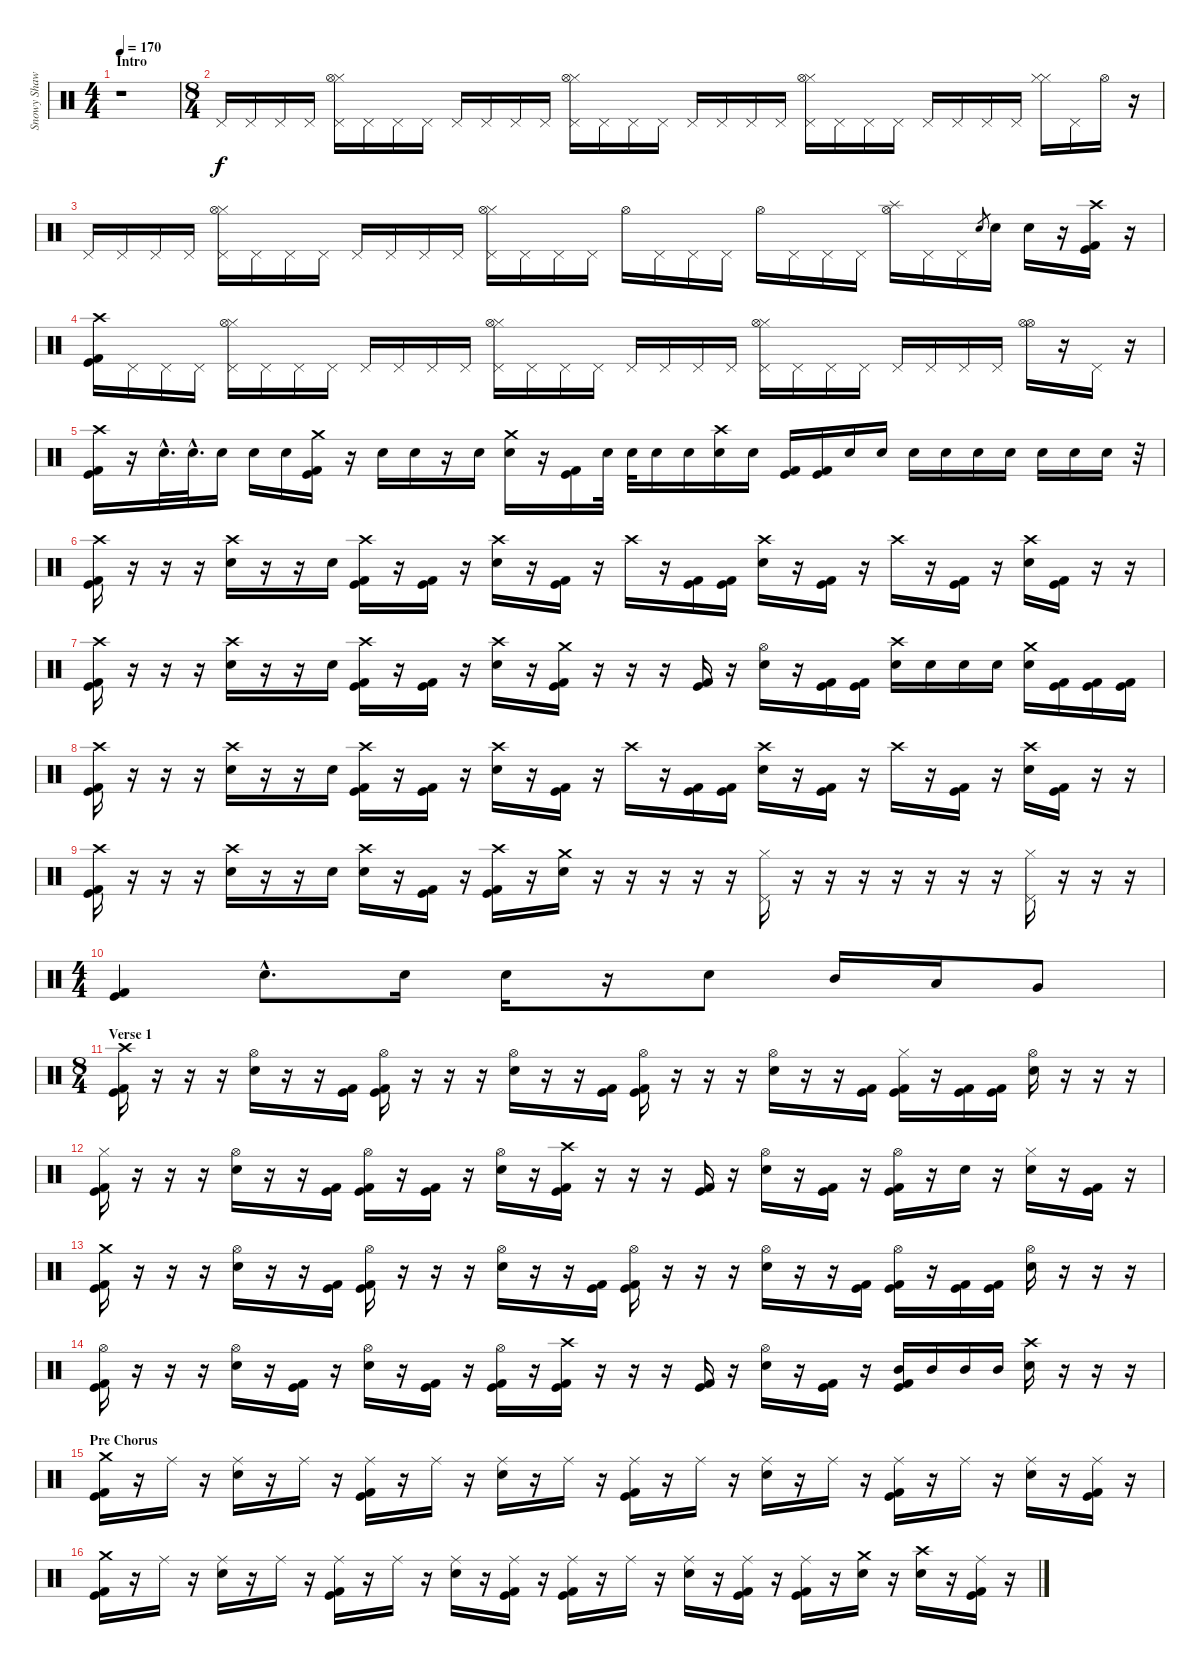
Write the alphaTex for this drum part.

\track ("Snowy Shaw" "Snowy Shaw") {instrument percussion}
\staff {score}
\articulation defaults
\ts (4 4)
\section ("" "Intro")
\tempo 170
\clef neutral
\ks c
r.1{dy f} |
\ts (8 4)
"Pedal Hi-Hat (hit)".16 "Pedal Hi-Hat (hit)".16 "Pedal Hi-Hat (hit)".16 "Pedal Hi-Hat (hit)".16 ("Hi-Hat (closed)" "Pedal Hi-Hat (hit)" "Hi-Hat (open)").16 "Pedal Hi-Hat (hit)".16 "Pedal Hi-Hat (hit)".16 "Pedal Hi-Hat (hit)".16 "Pedal Hi-Hat (hit)".16 "Pedal Hi-Hat (hit)".16 "Pedal Hi-Hat (hit)".16 "Pedal Hi-Hat (hit)".16 ("Hi-Hat (closed)" "Pedal Hi-Hat (hit)" "Hi-Hat (open)").16 "Pedal Hi-Hat (hit)".16 "Pedal Hi-Hat (hit)".16 "Pedal Hi-Hat (hit)".16 "Pedal Hi-Hat (hit)".16 "Pedal Hi-Hat (hit)".16 "Pedal Hi-Hat (hit)".16 "Pedal Hi-Hat (hit)".16 ("Hi-Hat (closed)" "Pedal Hi-Hat (hit)" "Hi-Hat (open)").16 "Pedal Hi-Hat (hit)".16 "Pedal Hi-Hat (hit)".16 "Pedal Hi-Hat (hit)".16 "Pedal Hi-Hat (hit)".16 "Pedal Hi-Hat (hit)".16 "Pedal Hi-Hat (hit)".16 "Pedal Hi-Hat (hit)".16 ("Hi-Hat (closed)" "Hi-Hat (closed)").16 "Pedal Hi-Hat (hit)".16 "Hi-Hat (open)".16 r.16 |
"Pedal Hi-Hat (hit)".16 "Pedal Hi-Hat (hit)".16 "Pedal Hi-Hat (hit)".16 "Pedal Hi-Hat (hit)".16 ("Hi-Hat (closed)" "Pedal Hi-Hat (hit)" "Hi-Hat (open)").16 "Pedal Hi-Hat (hit)".16 "Pedal Hi-Hat (hit)".16 "Pedal Hi-Hat (hit)".16 "Pedal Hi-Hat (hit)".16 "Pedal Hi-Hat (hit)".16 "Pedal Hi-Hat (hit)".16 "Pedal Hi-Hat (hit)".16 ("Hi-Hat (closed)" "Pedal Hi-Hat (hit)" "Hi-Hat (open)").16 "Pedal Hi-Hat (hit)".16 "Pedal Hi-Hat (hit)".16 "Pedal Hi-Hat (hit)".16 "Hi-Hat (open)".16 "Pedal Hi-Hat (hit)".16 "Pedal Hi-Hat (hit)".16 "Pedal Hi-Hat (hit)".16 "Hi-Hat (open)".16 "Pedal Hi-Hat (hit)".16 "Pedal Hi-Hat (hit)".16 "Pedal Hi-Hat (hit)".16 ("Splash (hit)" "Hi-Hat (open)").16 "Pedal Hi-Hat (hit)".16 "Pedal Hi-Hat (hit)".16 "Electric Snare (hit)".8{gr} "Electric Snare (hit)".16 "Electric Snare (hit)".16 r.16 ("Crash high (hit)" "Kick (hit) 2" "Kick (hit)").16 r.16 |
("Crash high (hit)" "Kick (hit)" "Kick (hit) 2").16 "Pedal Hi-Hat (hit)".16 "Pedal Hi-Hat (hit)".16 "Pedal Hi-Hat (hit)".16 ("Hi-Hat (closed)" "Pedal Hi-Hat (hit)" "Hi-Hat (open)").16 "Pedal Hi-Hat (hit)".16 "Pedal Hi-Hat (hit)".16 "Pedal Hi-Hat (hit)".16 "Pedal Hi-Hat (hit)".16 "Pedal Hi-Hat (hit)".16 "Pedal Hi-Hat (hit)".16 "Pedal Hi-Hat (hit)".16 ("Hi-Hat (closed)" "Pedal Hi-Hat (hit)" "Hi-Hat (open)").16 "Pedal Hi-Hat (hit)".16 "Pedal Hi-Hat (hit)".16 "Pedal Hi-Hat (hit)".16 "Pedal Hi-Hat (hit)".16 "Pedal Hi-Hat (hit)".16 "Pedal Hi-Hat (hit)".16 "Pedal Hi-Hat (hit)".16 ("Hi-Hat (closed)" "Pedal Hi-Hat (hit)" "Hi-Hat (open)").16 "Pedal Hi-Hat (hit)".16 "Pedal Hi-Hat (hit)".16 "Pedal Hi-Hat (hit)".16 "Pedal Hi-Hat (hit)".16 "Pedal Hi-Hat (hit)".16 "Pedal Hi-Hat (hit)".16 "Pedal Hi-Hat (hit)".16 ("Hi-Hat (open)" "Hi-Hat (open)").16 r.16 "Pedal Hi-Hat (hit)".16 r.16 |
("Crash high (hit)" "Kick (hit)" "Kick (hit) 2").16 r.16 "Electric Snare (hit)"{hac}.32{d} "Electric Snare (hit)"{hac}.32{d} "Electric Snare (hit)".16 "Electric Snare (hit)".16 "Electric Snare (hit)".16 ("Crash medium (hit)" "Kick (hit)" "Kick (hit) 2").16 r.16 "Electric Snare (hit)".16 "Electric Snare (hit)".16 r.16 "Electric Snare (hit)".16 ("Crash medium (hit)" "Electric Snare (hit)").16 r.16 ("Kick (hit)" "Kick (hit) 2").16 "Electric Snare (hit)".32 "Electric Snare (hit)".32 "Electric Snare (hit)".16 "Electric Snare (hit)".16 ("Crash high (hit)" "Electric Snare (hit)").16 "Electric Snare (hit)".16 ("Kick (hit)" "Kick (hit) 2").16 ("Kick (hit)" "Kick (hit) 2").16 "Electric Snare (hit)".16 "Electric Snare (hit)".16 "Electric Snare (hit)".16 "Electric Snare (hit)".16 "Electric Snare (hit)".16 "Electric Snare (hit)".16 "Electric Snare (hit)".16 "Electric Snare (hit)".16 "Electric Snare (hit)".16 r.32 |
("Crash high (hit)" "Kick (hit)" "Kick (hit) 2").16 r.16 r.16 r.16 ("Crash high (hit)" "Electric Snare (hit)").16 r.16 r.16 "Electric Snare (hit)".16 ("Crash high (hit)" "Kick (hit)" "Kick (hit) 2").16 r.16 ("Kick (hit)" "Kick (hit) 2").16 r.16 ("Crash high (hit)" "Electric Snare (hit)").16 r.16 ("Kick (hit)" "Kick (hit) 2").16 r.16 "Crash high (hit)".16 r.16 ("Kick (hit) 2" "Kick (hit)").16 ("Kick (hit)" "Kick (hit) 2").16 ("Crash high (hit)" "Electric Snare (hit)").16 r.16 ("Kick (hit)" "Kick (hit) 2").16 r.16 "Crash high (hit)".16 r.16 ("Kick (hit) 2" "Kick (hit)").16 r.16 ("Crash high (hit)" "Electric Snare (hit)").16 ("Kick (hit) 2" "Kick (hit)").16 r.16 r.16 |
("Crash high (hit)" "Kick (hit)" "Kick (hit) 2").16 r.16 r.16 r.16 ("Crash high (hit)" "Electric Snare (hit)").16 r.16 r.16 "Electric Snare (hit)".16 ("Crash high (hit)" "Kick (hit)" "Kick (hit) 2").16 r.16 ("Kick (hit)" "Kick (hit) 2").16 r.16 ("Crash high (hit)" "Electric Snare (hit)").16 r.16 ("Crash medium (hit)" "Kick (hit)" "Kick (hit) 2").16 r.16 r.16 r.16 ("Kick (hit) 2" "Kick (hit)").16 r.16 ("Hi-Hat (open)" "Electric Snare (hit)").16 r.16 ("Kick (hit)" "Kick (hit) 2").16 ("Kick (hit) 2" "Kick (hit)").16 ("Crash high (hit)" "Electric Snare (hit)").16 "Electric Snare (hit)".16 "Electric Snare (hit)".16 "Electric Snare (hit)".16 ("Crash medium (hit)" "Electric Snare (hit)").16 ("Kick (hit) 2" "Kick (hit)").16 ("Kick (hit) 2" "Kick (hit)").16 ("Kick (hit) 2" "Kick (hit)").16 |
("Crash high (hit)" "Kick (hit)" "Kick (hit) 2").16 r.16 r.16 r.16 ("Crash high (hit)" "Electric Snare (hit)").16 r.16 r.16 "Electric Snare (hit)".16 ("Crash high (hit)" "Kick (hit)" "Kick (hit) 2").16 r.16 ("Kick (hit)" "Kick (hit) 2").16 r.16 ("Crash high (hit)" "Electric Snare (hit)").16 r.16 ("Kick (hit)" "Kick (hit) 2").16 r.16 "Crash high (hit)".16 r.16 ("Kick (hit) 2" "Kick (hit)").16 ("Kick (hit)" "Kick (hit) 2").16 ("Crash high (hit)" "Electric Snare (hit)").16 r.16 ("Kick (hit)" "Kick (hit) 2").16 r.16 "Crash high (hit)".16 r.16 ("Kick (hit) 2" "Kick (hit)").16 r.16 ("Crash high (hit)" "Electric Snare (hit)").16 ("Kick (hit) 2" "Kick (hit)").16 r.16 r.16 |
("Crash high (hit)" "Kick (hit)" "Kick (hit) 2").16 r.16 r.16 r.16 ("Crash high (hit)" "Electric Snare (hit)").16 r.16 r.16 "Electric Snare (hit)".16 ("Crash high (hit)" "Electric Snare (hit)").16 r.16 ("Kick (hit)" "Kick (hit) 2").16 r.16 ("Crash high (hit)" "Kick (hit) 2" "Kick (hit)").16 r.16 ("Crash medium (hit)" "Electric Snare (hit)").16 r.16 r.16 r.16 r.16 r.16 ("Pedal Hi-Hat (hit)" "Hi-Hat (closed)").16 r.16 r.16 r.16 r.16 r.16 r.16 r.16 ("Pedal Hi-Hat (hit)" "Hi-Hat (closed)").16 r.16 r.16 r.16 |
\ts (4 4)
("Kick (hit)" "Kick (hit) 2").4 "Electric Snare (hit)"{hac}.8{d} "Electric Snare (hit)".16 "Electric Snare (hit)".16 r.16 "Electric Snare (hit)".8 "Mid Tom (hit)".16 "Low Tom (hit)".16 "Very Low Tom (hit)".8 |
\ts (8 4)
\section ("" "Verse 1")
("Crash high (hit)" "Kick (hit)" "Kick (hit) 2").16 r.16 r.16 r.16 ("Hi-Hat (open)" "Electric Snare (hit)").16 r.16 r.16 ("Kick (hit) 2" "Kick (hit)").16 ("Hi-Hat (open)" "Kick (hit)" "Kick (hit) 2").16 r.16 r.16 r.16 ("Hi-Hat (open)" "Electric Snare (hit)").16 r.16 r.16 ("Kick (hit)" "Kick (hit) 2").16 ("Hi-Hat (open)" "Kick (hit)" "Kick (hit) 2").16 r.16 r.16 r.16 ("Hi-Hat (open)" "Electric Snare (hit)").16 r.16 r.16 ("Kick (hit)" "Kick (hit) 2").16 ("Hi-Hat (closed)" "Kick (hit)" "Kick (hit) 2").16 r.16 ("Kick (hit)" "Kick (hit) 2").16 ("Kick (hit)" "Kick (hit) 2").16 ("Hi-Hat (open)" "Electric Snare (hit)").16 r.16 r.16 r.16 |
("Hi-Hat (closed)" "Kick (hit)" "Kick (hit) 2").16 r.16 r.16 r.16 ("Hi-Hat (open)" "Electric Snare (hit)").16 r.16 r.16 ("Kick (hit) 2" "Kick (hit)").16 ("Hi-Hat (open)" "Kick (hit)" "Kick (hit) 2").16 r.16 ("Kick (hit)" "Kick (hit) 2").16 r.16 ("Hi-Hat (open)" "Electric Snare (hit)").16 r.16 ("Crash high (hit)" "Kick (hit)" "Kick (hit) 2").16 r.16 r.16 r.16 ("Kick (hit)" "Kick (hit) 2").16 r.16 ("Hi-Hat (open)" "Electric Snare (hit)").16 r.16 ("Kick (hit)" "Kick (hit) 2").16 r.16 ("Hi-Hat (open)" "Kick (hit)" "Kick (hit) 2").16 r.16 "Electric Snare (hit)".16 r.16 ("Hi-Hat (closed)" "Electric Snare (hit)").16 r.16 ("Kick (hit)" "Kick (hit) 2").16 r.16 |
("Crash medium (hit)" "Kick (hit)" "Kick (hit) 2").16 r.16 r.16 r.16 ("Hi-Hat (open)" "Electric Snare (hit)").16 r.16 r.16 ("Kick (hit) 2" "Kick (hit)").16 ("Hi-Hat (open)" "Kick (hit)" "Kick (hit) 2").16 r.16 r.16 r.16 ("Hi-Hat (open)" "Electric Snare (hit)").16 r.16 r.16 ("Kick (hit)" "Kick (hit) 2").16 ("Hi-Hat (open)" "Kick (hit)" "Kick (hit) 2").16 r.16 r.16 r.16 ("Hi-Hat (open)" "Electric Snare (hit)").16 r.16 r.16 ("Kick (hit)" "Kick (hit) 2").16 ("Hi-Hat (open)" "Kick (hit)" "Kick (hit) 2").16 r.16 ("Kick (hit)" "Kick (hit) 2").16 ("Kick (hit)" "Kick (hit) 2").16 ("Hi-Hat (open)" "Electric Snare (hit)").16 r.16 r.16 r.16 |
("Hi-Hat (open)" "Kick (hit)" "Kick (hit) 2").16 r.16 r.16 r.16 ("Hi-Hat (open)" "Electric Snare (hit)").16 r.16 ("Kick (hit) 2" "Kick (hit)").16 r.16 ("Hi-Hat (open)" "Electric Snare (hit)").16 r.16 ("Kick (hit)" "Kick (hit) 2").16 r.16 ("Hi-Hat (open)" "Kick (hit) 2" "Kick (hit)").16 r.16 ("Crash high (hit)" "Kick (hit) 2" "Kick (hit)").16 r.16 r.16 r.16 ("Kick (hit)" "Kick (hit) 2").16 r.16 ("Hi-Hat (open)" "Electric Snare (hit)").16 r.16 ("Kick (hit)" "Kick (hit) 2").16 r.16 ("Mid Tom (hit)" "Kick (hit)" "Kick (hit) 2").16 "Mid Tom (hit)".16 "Mid Tom (hit)".16 "Mid Tom (hit)".16 ("Crash high (hit)" "Electric Snare (hit)").16 r.16 r.16 r.16 |
\section ("" "Pre Chorus")
("Crash medium (hit)" "Kick (hit)" "Kick (hit) 2").16 r.16 "Ride (middle)".16 r.16 ("Ride (middle)" "Electric Snare (hit)").16 r.16 "Ride (middle)".16 r.16 ("Ride (middle)" "Kick (hit)" "Kick (hit) 2").16 r.16 "Ride (middle)".16 r.16 ("Ride (middle)" "Electric Snare (hit)").16 r.16 "Ride (middle)".16 r.16 ("Ride (middle)" "Kick (hit)" "Kick (hit) 2").16 r.16 "Ride (middle)".16 r.16 ("Ride (middle)" "Electric Snare (hit)").16 r.16 "Ride (middle)".16 r.16 ("Ride (middle)" "Kick (hit)" "Kick (hit) 2").16 r.16 "Ride (middle)".16 r.16 ("Ride (middle)" "Electric Snare (hit)").16 r.16 ("Ride (middle)" "Kick (hit)" "Kick (hit) 2").16 r.16 |
("Crash medium (hit)" "Kick (hit)" "Kick (hit) 2").16 r.16 "Ride (middle)".16 r.16 ("Ride (middle)" "Electric Snare (hit)").16 r.16 "Ride (middle)".16 r.16 ("Ride (middle)" "Kick (hit)" "Kick (hit) 2").16 r.16 "Ride (middle)".16 r.16 ("Ride (middle)" "Electric Snare (hit)").16 r.16 ("Ride (middle)" "Kick (hit) 2" "Kick (hit)").16 r.16 ("Ride (middle)" "Kick (hit)" "Kick (hit) 2").16 r.16 "Ride (middle)".16 r.16 ("Ride (middle)" "Electric Snare (hit)").16 r.16 ("Ride (middle)" "Kick (hit)" "Kick (hit) 2").16 r.16 ("Ride (middle)" "Kick (hit)" "Kick (hit) 2").16 r.16 ("Crash medium (hit)" "Electric Snare (hit)").16 r.16 ("Crash high (hit)" "Electric Snare (hit)").16 r.16 ("Ride (middle)" "Kick (hit)" "Kick (hit) 2").16 r.16
